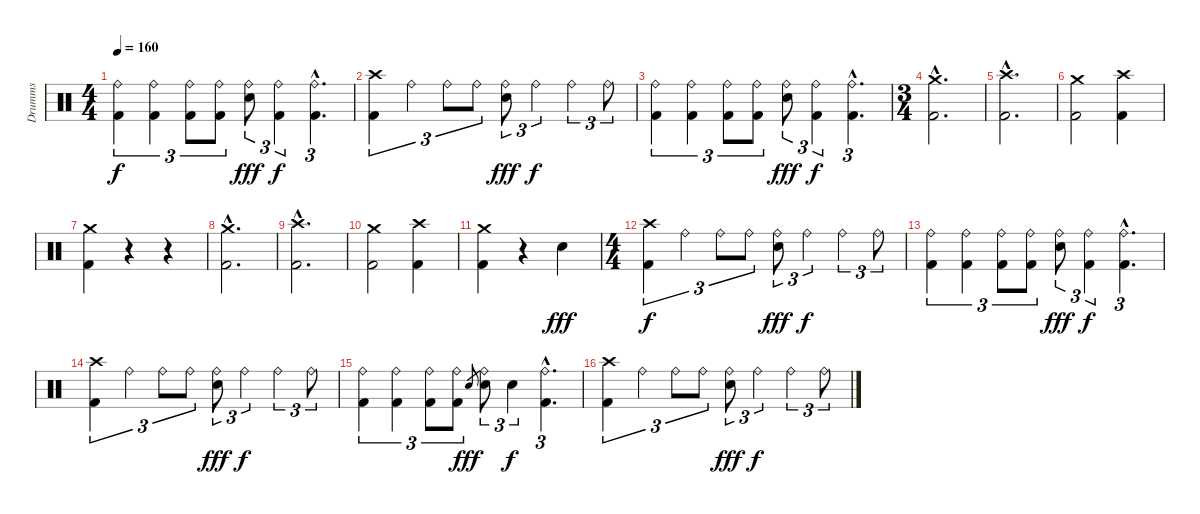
\track ("Drumms" "Drumms") {instrument percussion}
\staff {score}
\articulation defaults
\ts (4 4)
\tempo 160
\clef neutral
\ks c
("Ride (bell)" "Kick (hit) 2").4{tu (3 2) dy f} ("Ride (bell)" "Kick (hit) 2").4{tu (3 2)} ("Ride (bell)" "Kick (hit) 2").8{tu (3 2)} ("Ride (bell)" "Kick (hit) 2").8{tu (3 2)} ("Ride (bell)" "Snare (hit) 2").8{tu (3 2) dy fff} ("Ride (bell)" "Kick (hit) 2").4{tu (3 2) dy f} ("Ride (bell)" "Kick (hit) 2"{hac}).4{d tu (3 2)} |
("Crash high (hit)" "Kick (hit) 2").4{tu (3 2)} "Ride (bell)".4{tu (3 2)} "Ride (bell)".8{tu (3 2)} "Ride (bell)".8{tu (3 2)} ("Ride (bell)" "Snare (hit) 2").8{tu (3 2) dy fff} "Ride (bell)".4{tu (3 2) dy f} "Ride (bell)".4{tu (3 2)} "Ride (bell)".8{tu (3 2)} |
("Ride (bell)" "Kick (hit) 2").4{tu (3 2)} ("Ride (bell)" "Kick (hit) 2").4{tu (3 2)} ("Ride (bell)" "Kick (hit) 2").8{tu (3 2)} ("Ride (bell)" "Kick (hit) 2").8{tu (3 2)} ("Ride (bell)" "Snare (hit) 2").8{tu (3 2) dy fff} ("Ride (bell)" "Kick (hit) 2").4{tu (3 2) dy f} ("Ride (bell)" "Kick (hit) 2"{hac}).4{d tu (3 2)} |
\ts (3 4)
\section ("" "")
("Crash medium (hit)"{hac} "Kick (hit) 2"{hac}).2{d} |
("Crash high (hit)"{hac} "Kick (hit) 2"{hac}).2{d} |
("Crash medium (hit)" "Kick (hit) 2").2 ("Crash high (hit)" "Kick (hit) 2").4 |
("Crash medium (hit)" "Kick (hit) 2").4 r.4 r.4 |
("Crash medium (hit)"{hac} "Kick (hit) 2"{hac}).2{d} |
("Crash high (hit)"{hac} "Kick (hit) 2"{hac}).2{d} |
("Crash medium (hit)" "Kick (hit) 2").2 ("Crash high (hit)" "Kick (hit) 2").4 |
("Crash medium (hit)" "Kick (hit) 2").4 r.4 "Snare (hit) 2".4{dy fff} |
\ts (4 4)
\section ("" "")
("Crash high (hit)" "Kick (hit) 2").4{tu (3 2) dy f} "Ride (bell)".4{tu (3 2)} "Ride (bell)".8{tu (3 2)} "Ride (bell)".8{tu (3 2)} ("Ride (bell)" "Snare (hit) 2").8{tu (3 2) dy fff} "Ride (bell)".4{tu (3 2) dy f} "Ride (bell)".4{tu (3 2)} "Ride (bell)".8{tu (3 2)} |
("Ride (bell)" "Kick (hit) 2").4{tu (3 2)} ("Ride (bell)" "Kick (hit) 2").4{tu (3 2)} ("Ride (bell)" "Kick (hit) 2").8{tu (3 2)} ("Ride (bell)" "Kick (hit) 2").8{tu (3 2)} ("Ride (bell)" "Snare (hit) 2").8{tu (3 2) dy fff} ("Ride (bell)" "Kick (hit) 2").4{tu (3 2) dy f} ("Ride (bell)" "Kick (hit) 2"{hac}).4{d tu (3 2)} |
("Crash high (hit)" "Kick (hit) 2").4{tu (3 2)} "Ride (bell)".4{tu (3 2)} "Ride (bell)".8{tu (3 2)} "Ride (bell)".8{tu (3 2)} ("Ride (bell)" "Snare (hit) 2").8{tu (3 2) dy fff} "Ride (bell)".4{tu (3 2) dy f} "Ride (bell)".4{tu (3 2)} "Ride (bell)".8{tu (3 2)} |
("Ride (bell)" "Kick (hit) 2").4{tu (3 2)} ("Ride (bell)" "Kick (hit) 2").4{tu (3 2)} ("Ride (bell)" "Kick (hit) 2").8{tu (3 2)} ("Ride (bell)" "Kick (hit) 2").8{tu (3 2)} "Snare (hit) 2".8{gr dy fff} ("Ride (bell)" "Snare (hit) 2").8{tu (3 2)} "Snare (hit) 2".4{tu (3 2) dy f} ("Ride (bell)" "Kick (hit) 2"{hac}).4{d tu (3 2)} |
("Crash high (hit)" "Kick (hit) 2").4{tu (3 2)} "Ride (bell)".4{tu (3 2)} "Ride (bell)".8{tu (3 2)} "Ride (bell)".8{tu (3 2)} ("Ride (bell)" "Snare (hit) 2").8{tu (3 2) dy fff} "Ride (bell)".4{tu (3 2) dy f} "Ride (bell)".4{tu (3 2)} "Ride (bell)".8{tu (3 2)}
